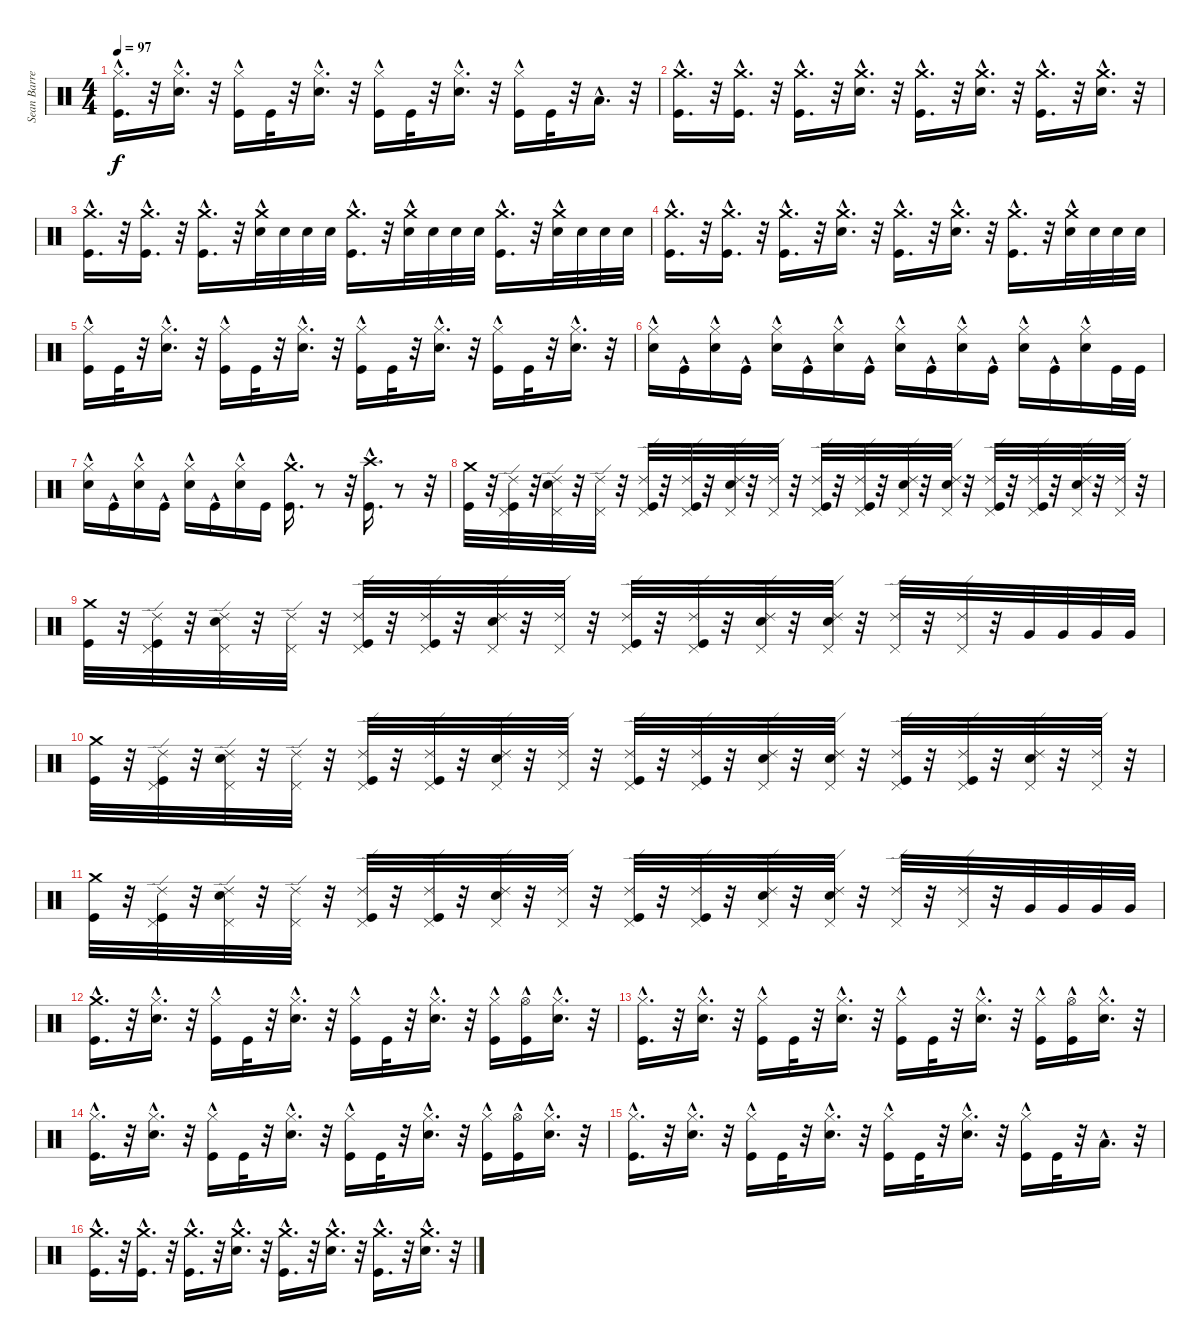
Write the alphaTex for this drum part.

\track ("Sean Barrett" "Sean Barre") {instrument percussion}
\staff {score}
\articulation defaults
\ts (4 4)
\tempo 97
\clef neutral
\ks c
("Kick (hit)"{hac} "Hi-Hat (closed)"{hac}).16{d dy f} r.32 ("Hi-Hat (closed)"{hac} "Snare (hit) 2"{hac}).16{d} r.32 ("Kick (hit)" "Hi-Hat (closed)"{hac}).16 "Kick (hit)".32 r.32 ("Snare (hit) 2"{hac} "Hi-Hat (closed)"{hac}).16{d} r.32 ("Kick (hit)" "Hi-Hat (closed)"{hac}).16 "Kick (hit)".32 r.32 ("Snare (hit) 2"{hac} "Hi-Hat (closed)"{hac}).16{d} r.32 ("Kick (hit)" "Hi-Hat (closed)"{hac}).16 "Kick (hit)".32 r.32 "Low Tom (hit)"{hac}.16{d} r.32 |
("Kick (hit)"{hac} "Crash medium (hit)"{hac}).16{d} r.32 ("Kick (hit)"{hac} "Crash medium (hit)"{hac}).16{d} r.32 ("Kick (hit)"{hac} "Crash medium (hit)"{hac}).16{d} r.32 ("Snare (hit) 2"{hac} "Crash medium (hit)"{hac}).16{d} r.32 ("Kick (hit)"{hac} "Crash medium (hit)"{hac}).16{d} r.32 ("Snare (hit) 2"{hac} "Crash medium (hit)"{hac}).16{d} r.32 ("Kick (hit)"{hac} "Crash medium (hit)"{hac}).16{d} r.32 ("Snare (hit) 2"{hac} "Crash medium (hit)"{hac}).16{d} r.32 |
("Kick (hit)"{hac} "Crash medium (hit)"{hac}).16{d} r.32 ("Kick (hit)"{hac} "Crash medium (hit)"{hac}).16{d} r.32 ("Kick (hit)"{hac} "Crash medium (hit)"{hac}).16{d} r.32 ("Snare (hit) 2" "Crash medium (hit)"{hac}).32 "Snare (hit) 2".32 "Snare (hit) 2".32 "Snare (hit) 2".32 ("Kick (hit)"{hac} "Crash medium (hit)"{hac}).16{d} r.32 ("Snare (hit) 2" "Crash medium (hit)"{hac}).32 "Snare (hit) 2".32 "Snare (hit) 2".32 "Snare (hit) 2".32 ("Kick (hit)"{hac} "Crash medium (hit)"{hac}).16{d} r.32 ("Snare (hit) 2" "Crash medium (hit)"{hac}).32 "Snare (hit) 2".32 "Snare (hit) 2".32 "Snare (hit) 2".32 |
("Kick (hit)"{hac} "Crash medium (hit)"{hac}).16{d} r.32 ("Kick (hit)"{hac} "Crash medium (hit)"{hac}).16{d} r.32 ("Kick (hit)"{hac} "Crash medium (hit)"{hac}).16{d} r.32 ("Snare (hit) 2"{hac} "Crash medium (hit)"{hac}).16{d} r.32 ("Kick (hit)"{hac} "Crash medium (hit)"{hac}).16{d} r.32 ("Snare (hit) 2"{hac} "Crash medium (hit)"{hac}).16{d} r.32 ("Kick (hit)"{hac} "Crash medium (hit)"{hac}).16{d} r.32 ("Snare (hit) 2" "Crash medium (hit)"{hac}).32 "Snare (hit) 2".32 "Snare (hit) 2".32 "Snare (hit) 2".32 |
("Kick (hit)" "Hi-Hat (closed)"{hac}).16 "Kick (hit)".32 r.32 ("Snare (hit) 2"{hac} "Hi-Hat (closed)"{hac}).16{d} r.32 ("Kick (hit)" "Hi-Hat (closed)"{hac}).16 "Kick (hit)".32 r.32 ("Snare (hit) 2"{hac} "Hi-Hat (closed)"{hac}).16{d} r.32 ("Kick (hit)" "Hi-Hat (closed)"{hac}).16 "Kick (hit)".32 r.32 ("Snare (hit) 2"{hac} "Hi-Hat (closed)"{hac}).16{d} r.32 ("Kick (hit)" "Hi-Hat (closed)"{hac}).16 "Kick (hit)".32 r.32 ("Snare (hit) 2"{hac} "Hi-Hat (closed)"{hac}).16{d} r.32 |
("Snare (hit) 2"{hac} "Hi-Hat (closed)"{hac}).16 "Kick (hit)"{hac}.16 ("Snare (hit) 2"{hac} "Hi-Hat (closed)"{hac}).16 "Kick (hit)"{hac}.16 ("Snare (hit) 2"{hac} "Hi-Hat (closed)"{hac}).16 "Kick (hit)"{hac}.16 ("Snare (hit) 2"{hac} "Hi-Hat (closed)"{hac}).16 "Kick (hit)"{hac}.16 ("Snare (hit) 2"{hac} "Hi-Hat (closed)"{hac}).16 "Kick (hit)"{hac}.16 ("Snare (hit) 2"{hac} "Hi-Hat (closed)"{hac}).16 "Kick (hit)"{hac}.16 ("Hi-Hat (closed)"{hac} "Snare (hit) 2"{hac}).16 "Kick (hit)"{hac}.16 ("Hi-Hat (closed)"{hac} "Snare (hit) 2"{hac}).16 "Kick (hit)".32 "Kick (hit)".32 |
("Snare (hit) 2"{hac} "Hi-Hat (closed)"{hac}).16 "Kick (hit)"{hac}.16 ("Snare (hit) 2"{hac} "Hi-Hat (closed)"{hac}).16 "Kick (hit)"{hac}.16 ("Snare (hit) 2"{hac} "Hi-Hat (closed)"{hac}).16 "Kick (hit)"{hac}.16 ("Snare (hit) 2"{hac} "Hi-Hat (closed)"{hac}).16 "Kick (hit)".16 ("Kick (hit)"{hac} "Crash medium (hit)"{hac}).16{d} r.8 r.32 ("Crash high (hit)"{hac} "Kick (hit)"{hac}).16{d} r.8 r.32 |
("Crash medium (hit)" "Kick (hit)").32 r.32 ("Pedal Hi-Hat (hit)" "Ride (edge) 2" "Kick (hit)").32 r.32 ("Pedal Hi-Hat (hit)" "Ride (edge) 2" "Snare (hit) 2").32 r.32 ("Pedal Hi-Hat (hit)" "Ride (edge) 2").32 r.32 ("Kick (hit)" "Pedal Hi-Hat (hit)" "Ride (edge) 2").32 r.32 ("Kick (hit)" "Pedal Hi-Hat (hit)" "Ride (edge) 2").32 r.32 ("Snare (hit) 2" "Pedal Hi-Hat (hit)" "Ride (edge) 2").32 r.32 ("Pedal Hi-Hat (hit)" "Ride (edge) 2").32 r.32 ("Kick (hit)" "Pedal Hi-Hat (hit)" "Ride (edge) 2").32 r.32 ("Kick (hit)" "Pedal Hi-Hat (hit)" "Ride (edge) 2").32 r.32 ("Snare (hit) 2" "Pedal Hi-Hat (hit)" "Ride (edge) 2").32 r.32 ("Snare (hit) 2" "Pedal Hi-Hat (hit)" "Ride (edge) 2").32 r.32 ("Kick (hit)" "Pedal Hi-Hat (hit)" "Ride (edge) 2").32 r.32 ("Kick (hit)" "Pedal Hi-Hat (hit)" "Ride (edge) 2").32 r.32 ("Snare (hit) 2" "Pedal Hi-Hat (hit)" "Ride (edge) 2").32 r.32 ("Pedal Hi-Hat (hit)" "Ride (edge) 2").32 r.32 |
("Crash medium (hit)" "Kick (hit)").32 r.32 ("Pedal Hi-Hat (hit)" "Ride (edge) 2" "Kick (hit)").32 r.32 ("Pedal Hi-Hat (hit)" "Ride (edge) 2" "Snare (hit) 2").32 r.32 ("Pedal Hi-Hat (hit)" "Ride (edge) 2").32 r.32 ("Kick (hit)" "Pedal Hi-Hat (hit)" "Ride (edge) 2").32 r.32 ("Kick (hit)" "Pedal Hi-Hat (hit)" "Ride (edge) 2").32 r.32 ("Snare (hit) 2" "Pedal Hi-Hat (hit)" "Ride (edge) 2").32 r.32 ("Pedal Hi-Hat (hit)" "Ride (edge) 2").32 r.32 ("Kick (hit)" "Pedal Hi-Hat (hit)" "Ride (edge) 2").32 r.32 ("Kick (hit)" "Pedal Hi-Hat (hit)" "Ride (edge) 2").32 r.32 ("Snare (hit) 2" "Pedal Hi-Hat (hit)" "Ride (edge) 2").32 r.32 ("Snare (hit) 2" "Pedal Hi-Hat (hit)" "Ride (edge) 2").32 r.32 ("Pedal Hi-Hat (hit)" "Ride (edge) 2").32 r.32 ("Pedal Hi-Hat (hit)" "Ride (edge) 2").32 r.32 "Very Low Tom (hit)".32 "Very Low Tom (hit)".32 "Very Low Tom (hit)".32 "Very Low Tom (hit)".32 |
("Crash medium (hit)" "Kick (hit)").32 r.32 ("Pedal Hi-Hat (hit)" "Ride (edge) 2" "Kick (hit)").32 r.32 ("Pedal Hi-Hat (hit)" "Ride (edge) 2" "Snare (hit) 2").32 r.32 ("Pedal Hi-Hat (hit)" "Ride (edge) 2").32 r.32 ("Kick (hit)" "Pedal Hi-Hat (hit)" "Ride (edge) 2").32 r.32 ("Kick (hit)" "Pedal Hi-Hat (hit)" "Ride (edge) 2").32 r.32 ("Snare (hit) 2" "Pedal Hi-Hat (hit)" "Ride (edge) 2").32 r.32 ("Pedal Hi-Hat (hit)" "Ride (edge) 2").32 r.32 ("Kick (hit)" "Pedal Hi-Hat (hit)" "Ride (edge) 2").32 r.32 ("Kick (hit)" "Pedal Hi-Hat (hit)" "Ride (edge) 2").32 r.32 ("Snare (hit) 2" "Pedal Hi-Hat (hit)" "Ride (edge) 2").32 r.32 ("Snare (hit) 2" "Pedal Hi-Hat (hit)" "Ride (edge) 2").32 r.32 ("Kick (hit)" "Pedal Hi-Hat (hit)" "Ride (edge) 2").32 r.32 ("Kick (hit)" "Pedal Hi-Hat (hit)" "Ride (edge) 2").32 r.32 ("Snare (hit) 2" "Pedal Hi-Hat (hit)" "Ride (edge) 2").32 r.32 ("Pedal Hi-Hat (hit)" "Ride (edge) 2").32 r.32 |
("Crash medium (hit)" "Kick (hit)").32 r.32 ("Pedal Hi-Hat (hit)" "Ride (edge) 2" "Kick (hit)").32 r.32 ("Pedal Hi-Hat (hit)" "Ride (edge) 2" "Snare (hit) 2").32 r.32 ("Pedal Hi-Hat (hit)" "Ride (edge) 2").32 r.32 ("Kick (hit)" "Pedal Hi-Hat (hit)" "Ride (edge) 2").32 r.32 ("Kick (hit)" "Pedal Hi-Hat (hit)" "Ride (edge) 2").32 r.32 ("Snare (hit) 2" "Pedal Hi-Hat (hit)" "Ride (edge) 2").32 r.32 ("Pedal Hi-Hat (hit)" "Ride (edge) 2").32 r.32 ("Kick (hit)" "Pedal Hi-Hat (hit)" "Ride (edge) 2").32 r.32 ("Kick (hit)" "Pedal Hi-Hat (hit)" "Ride (edge) 2").32 r.32 ("Snare (hit) 2" "Pedal Hi-Hat (hit)" "Ride (edge) 2").32 r.32 ("Snare (hit) 2" "Pedal Hi-Hat (hit)" "Ride (edge) 2").32 r.32 ("Pedal Hi-Hat (hit)" "Ride (edge) 2").32 r.32 ("Pedal Hi-Hat (hit)" "Ride (edge) 2").32 r.32 "Very Low Tom (hit)".32 "Very Low Tom (hit)".32 "Very Low Tom (hit)".32 "Very Low Tom (hit)".32 |
("Kick (hit)"{hac} "Crash medium (hit)"{hac}).16{d} r.32 ("Hi-Hat (closed)"{hac} "Snare (hit) 2"{hac}).16{d} r.32 ("Kick (hit)" "Hi-Hat (closed)"{hac}).16 "Kick (hit)".32 r.32 ("Snare (hit) 2"{hac} "Hi-Hat (closed)"{hac}).16{d} r.32 ("Kick (hit)" "Hi-Hat (closed)"{hac}).16 "Kick (hit)".32 r.32 ("Snare (hit) 2"{hac} "Hi-Hat (closed)"{hac}).16{d} r.32 ("Kick (hit)" "Hi-Hat (closed)"{hac}).16 ("Hi-Hat (open)"{hac} "Kick (hit)").16 ("Hi-Hat (closed)"{hac} "Snare (hit) 2"{hac}).16{d} r.32 |
("Kick (hit)"{hac} "Hi-Hat (closed)"{hac}).16{d} r.32 ("Hi-Hat (closed)"{hac} "Snare (hit) 2"{hac}).16{d} r.32 ("Kick (hit)" "Hi-Hat (closed)"{hac}).16 "Kick (hit)".32 r.32 ("Snare (hit) 2"{hac} "Hi-Hat (closed)"{hac}).16{d} r.32 ("Kick (hit)" "Hi-Hat (closed)"{hac}).16 "Kick (hit)".32 r.32 ("Snare (hit) 2"{hac} "Hi-Hat (closed)"{hac}).16{d} r.32 ("Kick (hit)" "Hi-Hat (closed)"{hac}).16 ("Hi-Hat (open)"{hac} "Kick (hit)").16 ("Hi-Hat (closed)"{hac} "Snare (hit) 2"{hac}).16{d} r.32 |
("Hi-Hat (closed)"{hac} "Kick (hit)"{hac}).16{d} r.32 ("Hi-Hat (closed)"{hac} "Snare (hit) 2"{hac}).16{d} r.32 ("Kick (hit)" "Hi-Hat (closed)"{hac}).16 "Kick (hit)".32 r.32 ("Snare (hit) 2"{hac} "Hi-Hat (closed)"{hac}).16{d} r.32 ("Kick (hit)" "Hi-Hat (closed)"{hac}).16 "Kick (hit)".32 r.32 ("Snare (hit) 2"{hac} "Hi-Hat (closed)"{hac}).16{d} r.32 ("Kick (hit)" "Hi-Hat (closed)"{hac}).16 ("Hi-Hat (open)"{hac} "Kick (hit)").16 ("Hi-Hat (closed)"{hac} "Snare (hit) 2"{hac}).16{d} r.32 |
("Kick (hit)"{hac} "Hi-Hat (closed)"{hac}).16{d} r.32 ("Hi-Hat (closed)"{hac} "Snare (hit) 2"{hac}).16{d} r.32 ("Kick (hit)" "Hi-Hat (closed)"{hac}).16 "Kick (hit)".32 r.32 ("Snare (hit) 2"{hac} "Hi-Hat (closed)"{hac}).16{d} r.32 ("Kick (hit)" "Hi-Hat (closed)"{hac}).16 "Kick (hit)".32 r.32 ("Snare (hit) 2"{hac} "Hi-Hat (closed)"{hac}).16{d} r.32 ("Kick (hit)" "Hi-Hat (closed)"{hac}).16 "Kick (hit)".32 r.32 "Low Tom (hit)"{hac}.16{d} r.32 |
("Kick (hit)"{hac} "Crash medium (hit)"{hac}).16{d} r.32 ("Kick (hit)"{hac} "Crash medium (hit)"{hac}).16{d} r.32 ("Kick (hit)"{hac} "Crash medium (hit)"{hac}).16{d} r.32 ("Snare (hit) 2"{hac} "Crash medium (hit)"{hac}).16{d} r.32 ("Kick (hit)"{hac} "Crash medium (hit)"{hac}).16{d} r.32 ("Snare (hit) 2"{hac} "Crash medium (hit)"{hac}).16{d} r.32 ("Kick (hit)"{hac} "Crash medium (hit)"{hac}).16{d} r.32 ("Snare (hit) 2"{hac} "Crash medium (hit)"{hac}).16{d} r.32
